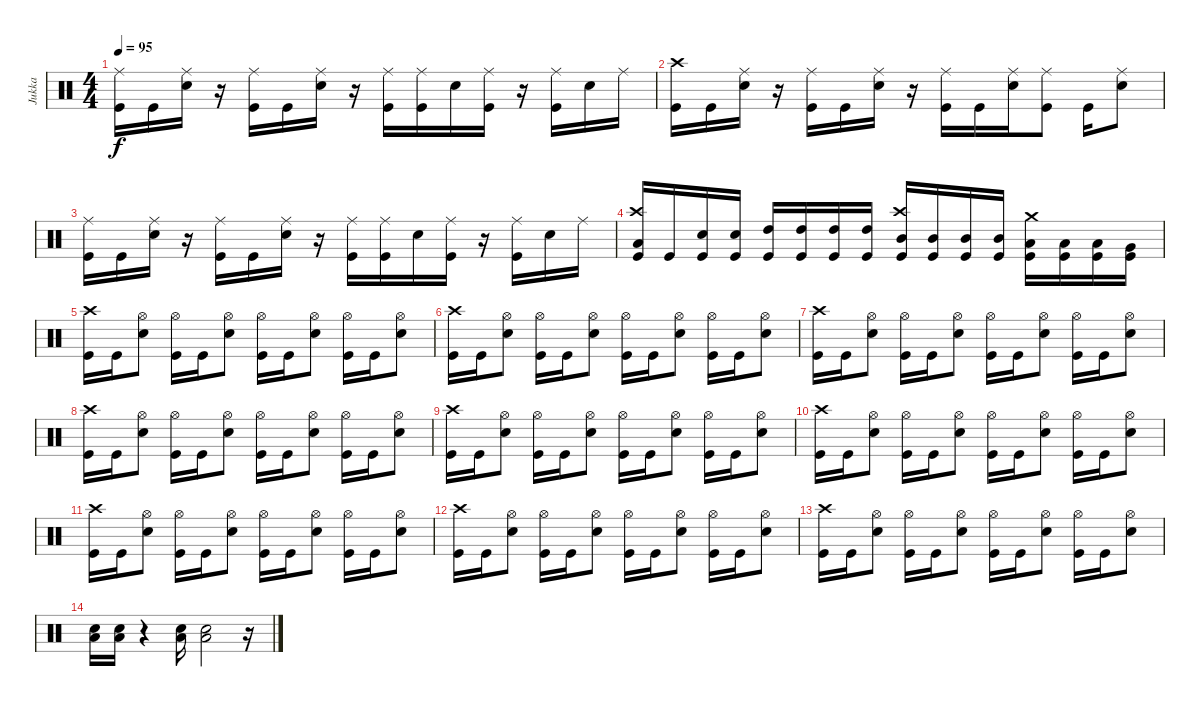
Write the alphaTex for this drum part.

\track ("Jukka" "Jukka") {instrument percussion}
\staff {score}
\articulation defaults
\ts (4 4)
\tempo 95
\clef neutral
\ks c
("Ride (middle)" "Kick (hit)").16{dy f} "Kick (hit)".16 ("Ride (middle)" "Electric Snare (hit)").16 r.16 ("Ride (middle)" "Kick (hit)").16 "Kick (hit)".16 ("Ride (middle)" "Electric Snare (hit)").16 r.16 ("Ride (middle)" "Kick (hit)").16 ("Ride (middle)" "Kick (hit)").16 "Electric Snare (hit)".16 ("Ride (middle)" "Kick (hit)").16 r.16 ("Ride (middle)" "Kick (hit)").16 "Electric Snare (hit)".16 "Ride (middle)".16 |
("Crash high (hit)" "Kick (hit)").16 "Kick (hit)".16 ("Ride (middle)" "Electric Snare (hit)").16 r.16 ("Ride (middle)" "Kick (hit)").16 "Kick (hit)".16 ("Ride (middle)" "Electric Snare (hit)").16 r.16 ("Ride (middle)" "Kick (hit)").16 "Kick (hit)".16 ("Ride (middle)" "Electric Snare (hit)").16 ("Ride (middle)" "Kick (hit)").8 "Kick (hit)".16 ("Ride (middle)" "Electric Snare (hit)").8 |
("Ride (middle)" "Kick (hit)").16 "Kick (hit)".16 ("Ride (middle)" "Electric Snare (hit)").16 r.16 ("Ride (middle)" "Kick (hit)").16 "Kick (hit)".16 ("Ride (middle)" "Electric Snare (hit)").16 r.16 ("Ride (middle)" "Kick (hit)").16 ("Ride (middle)" "Kick (hit)").16 "Electric Snare (hit)".16 ("Ride (middle)" "Kick (hit)").16 r.16 ("Ride (middle)" "Kick (hit)").16 "Electric Snare (hit)".16 "Ride (middle)".16 |
("Crash high (hit)" "Low Tom (hit)" "Kick (hit)").16 "Kick (hit)".16 ("Electric Snare (hit)" "Kick (hit)").16 ("Electric Snare (hit)" "Kick (hit)").16 ("High Tom (hit)" "Kick (hit)").16 ("High Tom (hit)" "Kick (hit)").16 ("High Tom (hit)" "Kick (hit)").16 ("High Tom (hit)" "Kick (hit)").16 ("Crash high (hit)" "Mid Tom (hit)" "Kick (hit)").16 ("Mid Tom (hit)" "Kick (hit)").16 ("Mid Tom (hit)" "Kick (hit)").16 ("Mid Tom (hit)" "Kick (hit)").16 ("Crash medium (hit)" "Low Tom (hit)" "Kick (hit)").16 ("Low Tom (hit)" "Kick (hit)").16 ("Low Tom (hit)" "Kick (hit)").16 ("Very Low Tom (hit)" "Kick (hit)").16 |
("Crash high (hit)" "Kick (hit)").16 "Kick (hit)".16 ("Hi-Hat (open)" "Electric Snare (hit)").8 ("Hi-Hat (open)" "Kick (hit)").16 "Kick (hit)".16 ("Hi-Hat (open)" "Electric Snare (hit)").8 ("Hi-Hat (open)" "Kick (hit)").16 "Kick (hit)".16 ("Hi-Hat (open)" "Electric Snare (hit)").8 ("Hi-Hat (open)" "Kick (hit)").16 "Kick (hit)".16 ("Hi-Hat (open)" "Electric Snare (hit)").8 |
("Crash high (hit)" "Kick (hit)").16 "Kick (hit)".16 ("Hi-Hat (open)" "Electric Snare (hit)").8 ("Hi-Hat (open)" "Kick (hit)").16 "Kick (hit)".16 ("Hi-Hat (open)" "Electric Snare (hit)").8 ("Hi-Hat (open)" "Kick (hit)").16 "Kick (hit)".16 ("Hi-Hat (open)" "Electric Snare (hit)").8 ("Hi-Hat (open)" "Kick (hit)").16 "Kick (hit)".16 ("Hi-Hat (open)" "Electric Snare (hit)").8 |
("Crash high (hit)" "Kick (hit)").16 "Kick (hit)".16 ("Hi-Hat (open)" "Electric Snare (hit)").8 ("Hi-Hat (open)" "Kick (hit)").16 "Kick (hit)".16 ("Hi-Hat (open)" "Electric Snare (hit)").8 ("Hi-Hat (open)" "Kick (hit)").16 "Kick (hit)".16 ("Hi-Hat (open)" "Electric Snare (hit)").8 ("Hi-Hat (open)" "Kick (hit)").16 "Kick (hit)".16 ("Hi-Hat (open)" "Electric Snare (hit)").8 |
("Crash high (hit)" "Kick (hit)").16 "Kick (hit)".16 ("Hi-Hat (open)" "Electric Snare (hit)").8 ("Hi-Hat (open)" "Kick (hit)").16 "Kick (hit)".16 ("Hi-Hat (open)" "Electric Snare (hit)").8 ("Hi-Hat (open)" "Kick (hit)").16 "Kick (hit)".16 ("Hi-Hat (open)" "Electric Snare (hit)").8 ("Hi-Hat (open)" "Kick (hit)").16 "Kick (hit)".16 ("Hi-Hat (open)" "Electric Snare (hit)").8 |
("Crash high (hit)" "Kick (hit)").16 "Kick (hit)".16 ("Hi-Hat (open)" "Electric Snare (hit)").8 ("Hi-Hat (open)" "Kick (hit)").16 "Kick (hit)".16 ("Hi-Hat (open)" "Electric Snare (hit)").8 ("Hi-Hat (open)" "Kick (hit)").16 "Kick (hit)".16 ("Hi-Hat (open)" "Electric Snare (hit)").8 ("Hi-Hat (open)" "Kick (hit)").16 "Kick (hit)".16 ("Hi-Hat (open)" "Electric Snare (hit)").8 |
("Crash high (hit)" "Kick (hit)").16 "Kick (hit)".16 ("Hi-Hat (open)" "Electric Snare (hit)").8 ("Hi-Hat (open)" "Kick (hit)").16 "Kick (hit)".16 ("Hi-Hat (open)" "Electric Snare (hit)").8 ("Hi-Hat (open)" "Kick (hit)").16 "Kick (hit)".16 ("Hi-Hat (open)" "Electric Snare (hit)").8 ("Hi-Hat (open)" "Kick (hit)").16 "Kick (hit)".16 ("Hi-Hat (open)" "Electric Snare (hit)").8 |
("Crash high (hit)" "Kick (hit)").16 "Kick (hit)".16 ("Hi-Hat (open)" "Electric Snare (hit)").8 ("Hi-Hat (open)" "Kick (hit)").16 "Kick (hit)".16 ("Hi-Hat (open)" "Electric Snare (hit)").8 ("Hi-Hat (open)" "Kick (hit)").16 "Kick (hit)".16 ("Hi-Hat (open)" "Electric Snare (hit)").8 ("Hi-Hat (open)" "Kick (hit)").16 "Kick (hit)".16 ("Hi-Hat (open)" "Electric Snare (hit)").8 |
("Crash high (hit)" "Kick (hit)").16 "Kick (hit)".16 ("Hi-Hat (open)" "Electric Snare (hit)").8 ("Hi-Hat (open)" "Kick (hit)").16 "Kick (hit)".16 ("Hi-Hat (open)" "Electric Snare (hit)").8 ("Hi-Hat (open)" "Kick (hit)").16 "Kick (hit)".16 ("Hi-Hat (open)" "Electric Snare (hit)").8 ("Hi-Hat (open)" "Kick (hit)").16 "Kick (hit)".16 ("Hi-Hat (open)" "Electric Snare (hit)").8 |
("Crash high (hit)" "Kick (hit)").16 "Kick (hit)".16 ("Hi-Hat (open)" "Electric Snare (hit)").8 ("Hi-Hat (open)" "Kick (hit)").16 "Kick (hit)".16 ("Hi-Hat (open)" "Electric Snare (hit)").8 ("Hi-Hat (open)" "Kick (hit)").16 "Kick (hit)".16 ("Hi-Hat (open)" "Electric Snare (hit)").8 ("Hi-Hat (open)" "Kick (hit)").16 "Kick (hit)".16 ("Hi-Hat (open)" "Electric Snare (hit)").8 |
("Low Floor Tom (hit)" "Electric Snare (hit)").16 ("Low Floor Tom (hit)" "Electric Snare (hit)").16 r.4 ("Low Floor Tom (hit)" "Electric Snare (hit)").16 ("Low Floor Tom (hit)" "Electric Snare (hit)").2 r.16
